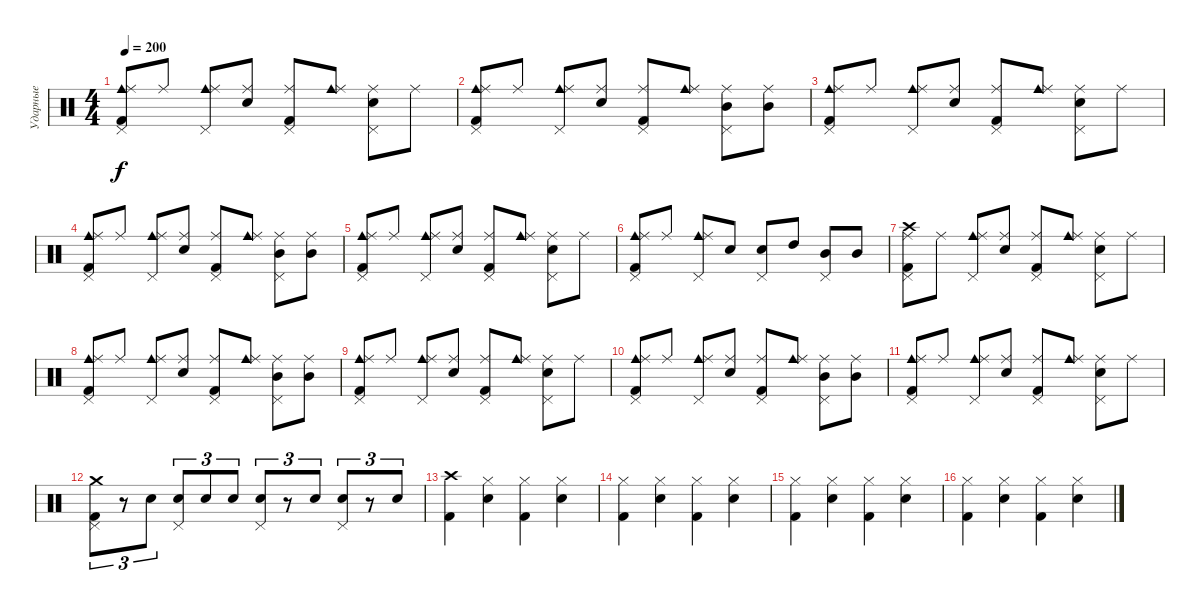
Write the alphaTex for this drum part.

\track ("Ударные" "Ударные") {instrument percussion}
\staff {score}
\articulation defaults
\ts (4 4)
\tempo 200
\clef neutral
\ks c
("Cowbell medium (hit)" "Ride (middle)" "Kick (hit) 2" "Pedal Hi-Hat (hit)").8{dy f} "Ride (middle)".8 ("Cowbell medium (hit)" "Ride (middle)" "Pedal Hi-Hat (hit)").8 ("Electric Snare (hit)" "Ride (middle)").8 ("Ride (middle)" "Kick (hit) 2" "Pedal Hi-Hat (hit)").8 ("Cowbell medium (hit)" "Ride (middle)").8 ("Electric Snare (hit)" "Ride (middle)" "Pedal Hi-Hat (hit)").8 "Ride (middle)".8 |
("Cowbell medium (hit)" "Ride (middle)" "Kick (hit) 2" "Pedal Hi-Hat (hit)").8 "Ride (middle)".8 ("Cowbell medium (hit)" "Ride (middle)" "Pedal Hi-Hat (hit)").8 ("Electric Snare (hit)" "Ride (middle)").8 ("Ride (middle)" "Kick (hit) 2" "Pedal Hi-Hat (hit)").8 ("Cowbell medium (hit)" "Ride (middle)").8 ("Mid Tom (hit)" "Ride (middle)" "Pedal Hi-Hat (hit)").8 ("Mid Tom (hit)" "Ride (middle)").8 |
("Cowbell medium (hit)" "Ride (middle)" "Kick (hit) 2" "Pedal Hi-Hat (hit)").8 "Ride (middle)".8 ("Cowbell medium (hit)" "Ride (middle)" "Pedal Hi-Hat (hit)").8 ("Electric Snare (hit)" "Ride (middle)").8 ("Ride (middle)" "Kick (hit) 2" "Pedal Hi-Hat (hit)").8 ("Cowbell medium (hit)" "Ride (middle)").8 ("Electric Snare (hit)" "Ride (middle)" "Pedal Hi-Hat (hit)").8 "Ride (middle)".8 |
("Cowbell medium (hit)" "Ride (middle)" "Kick (hit) 2" "Pedal Hi-Hat (hit)").8 "Ride (middle)".8 ("Cowbell medium (hit)" "Ride (middle)" "Pedal Hi-Hat (hit)").8 ("Electric Snare (hit)" "Ride (middle)").8 ("Ride (middle)" "Kick (hit) 2" "Pedal Hi-Hat (hit)").8 ("Cowbell medium (hit)" "Ride (middle)").8 ("Mid Tom (hit)" "Ride (middle)" "Pedal Hi-Hat (hit)").8 ("Mid Tom (hit)" "Ride (middle)").8 |
("Cowbell medium (hit)" "Ride (middle)" "Kick (hit) 2" "Pedal Hi-Hat (hit)").8 "Ride (middle)".8 ("Cowbell medium (hit)" "Ride (middle)" "Pedal Hi-Hat (hit)").8 ("Electric Snare (hit)" "Ride (middle)").8 ("Ride (middle)" "Kick (hit) 2" "Pedal Hi-Hat (hit)").8 ("Cowbell medium (hit)" "Ride (middle)").8 ("Electric Snare (hit)" "Ride (middle)" "Pedal Hi-Hat (hit)").8 "Ride (middle)".8 |
("Cowbell medium (hit)" "Ride (middle)" "Kick (hit) 2" "Pedal Hi-Hat (hit)").8 "Ride (middle)".8 ("Cowbell medium (hit)" "Ride (middle)" "Pedal Hi-Hat (hit)").8 "Electric Snare (hit)".8 ("Electric Snare (hit)" "Pedal Hi-Hat (hit)").8 "High Tom (hit)".8 ("Mid Tom (hit)" "Pedal Hi-Hat (hit)").8 "Mid Tom (hit)".8 |
("Crash high (hit)" "Ride (middle)" "Kick (hit) 2" "Pedal Hi-Hat (hit)").8 "Ride (middle)".8 ("Cowbell medium (hit)" "Ride (middle)" "Pedal Hi-Hat (hit)").8 ("Electric Snare (hit)" "Ride (middle)").8 ("Ride (middle)" "Kick (hit) 2" "Pedal Hi-Hat (hit)").8 ("Cowbell medium (hit)" "Ride (middle)").8 ("Electric Snare (hit)" "Ride (middle)" "Pedal Hi-Hat (hit)").8 "Ride (middle)".8 |
("Cowbell medium (hit)" "Ride (middle)" "Kick (hit) 2" "Pedal Hi-Hat (hit)").8 "Ride (middle)".8 ("Cowbell medium (hit)" "Ride (middle)" "Pedal Hi-Hat (hit)").8 ("Electric Snare (hit)" "Ride (middle)").8 ("Ride (middle)" "Kick (hit) 2" "Pedal Hi-Hat (hit)").8 ("Cowbell medium (hit)" "Ride (middle)").8 ("Mid Tom (hit)" "Ride (middle)" "Pedal Hi-Hat (hit)").8 ("Mid Tom (hit)" "Ride (middle)").8 |
("Cowbell medium (hit)" "Ride (middle)" "Kick (hit) 2" "Pedal Hi-Hat (hit)").8 "Ride (middle)".8 ("Cowbell medium (hit)" "Ride (middle)" "Pedal Hi-Hat (hit)").8 ("Electric Snare (hit)" "Ride (middle)").8 ("Ride (middle)" "Kick (hit) 2" "Pedal Hi-Hat (hit)").8 ("Cowbell medium (hit)" "Ride (middle)").8 ("Electric Snare (hit)" "Ride (middle)" "Pedal Hi-Hat (hit)").8 "Ride (middle)".8 |
("Cowbell medium (hit)" "Ride (middle)" "Kick (hit) 2" "Pedal Hi-Hat (hit)").8 "Ride (middle)".8 ("Cowbell medium (hit)" "Ride (middle)" "Pedal Hi-Hat (hit)").8 ("Electric Snare (hit)" "Ride (middle)").8 ("Ride (middle)" "Kick (hit) 2" "Pedal Hi-Hat (hit)").8 ("Cowbell medium (hit)" "Ride (middle)").8 ("Mid Tom (hit)" "Ride (middle)" "Pedal Hi-Hat (hit)").8 ("Mid Tom (hit)" "Ride (middle)").8 |
("Cowbell medium (hit)" "Ride (middle)" "Kick (hit) 2" "Pedal Hi-Hat (hit)").8 "Ride (middle)".8 ("Cowbell medium (hit)" "Ride (middle)" "Pedal Hi-Hat (hit)").8 ("Electric Snare (hit)" "Ride (middle)").8 ("Ride (middle)" "Kick (hit) 2" "Pedal Hi-Hat (hit)").8 ("Cowbell medium (hit)" "Ride (middle)").8 ("Electric Snare (hit)" "Ride (middle)" "Pedal Hi-Hat (hit)").8 "Ride (middle)".8 |
("Crash medium (hit)" "Kick (hit) 2" "Pedal Hi-Hat (hit)").8{tu (3 2)} r.8{tu (3 2)} "Electric Snare (hit)".8{tu (3 2)} ("Electric Snare (hit)" "Pedal Hi-Hat (hit)").8{tu (3 2)} "Electric Snare (hit)".8{tu (3 2)} "Electric Snare (hit)".8{tu (3 2)} ("Electric Snare (hit)" "Pedal Hi-Hat (hit)").8{tu (3 2)} r.8{tu (3 2)} "Electric Snare (hit)".8{tu (3 2)} ("Electric Snare (hit)" "Pedal Hi-Hat (hit)").8{tu (3 2)} r.8{tu (3 2)} "Electric Snare (hit)".8{tu (3 2)} |
("Crash high (hit)" "Kick (hit) 2").4 ("Hi-Hat (closed)" "Electric Snare (hit)").4 ("Hi-Hat (closed)" "Kick (hit) 2").4 ("Hi-Hat (closed)" "Electric Snare (hit)").4 |
("Hi-Hat (closed)" "Kick (hit) 2").4 ("Hi-Hat (closed)" "Electric Snare (hit)").4 ("Hi-Hat (closed)" "Kick (hit) 2").4 ("Hi-Hat (closed)" "Electric Snare (hit)").4 |
("Hi-Hat (closed)" "Kick (hit) 2").4 ("Hi-Hat (closed)" "Electric Snare (hit)").4 ("Hi-Hat (closed)" "Kick (hit) 2").4 ("Hi-Hat (closed)" "Electric Snare (hit)").4 |
("Hi-Hat (closed)" "Kick (hit) 2").4 ("Hi-Hat (closed)" "Electric Snare (hit)").4 ("Hi-Hat (closed)" "Kick (hit) 2").4 ("Hi-Hat (closed)" "Electric Snare (hit)").4
